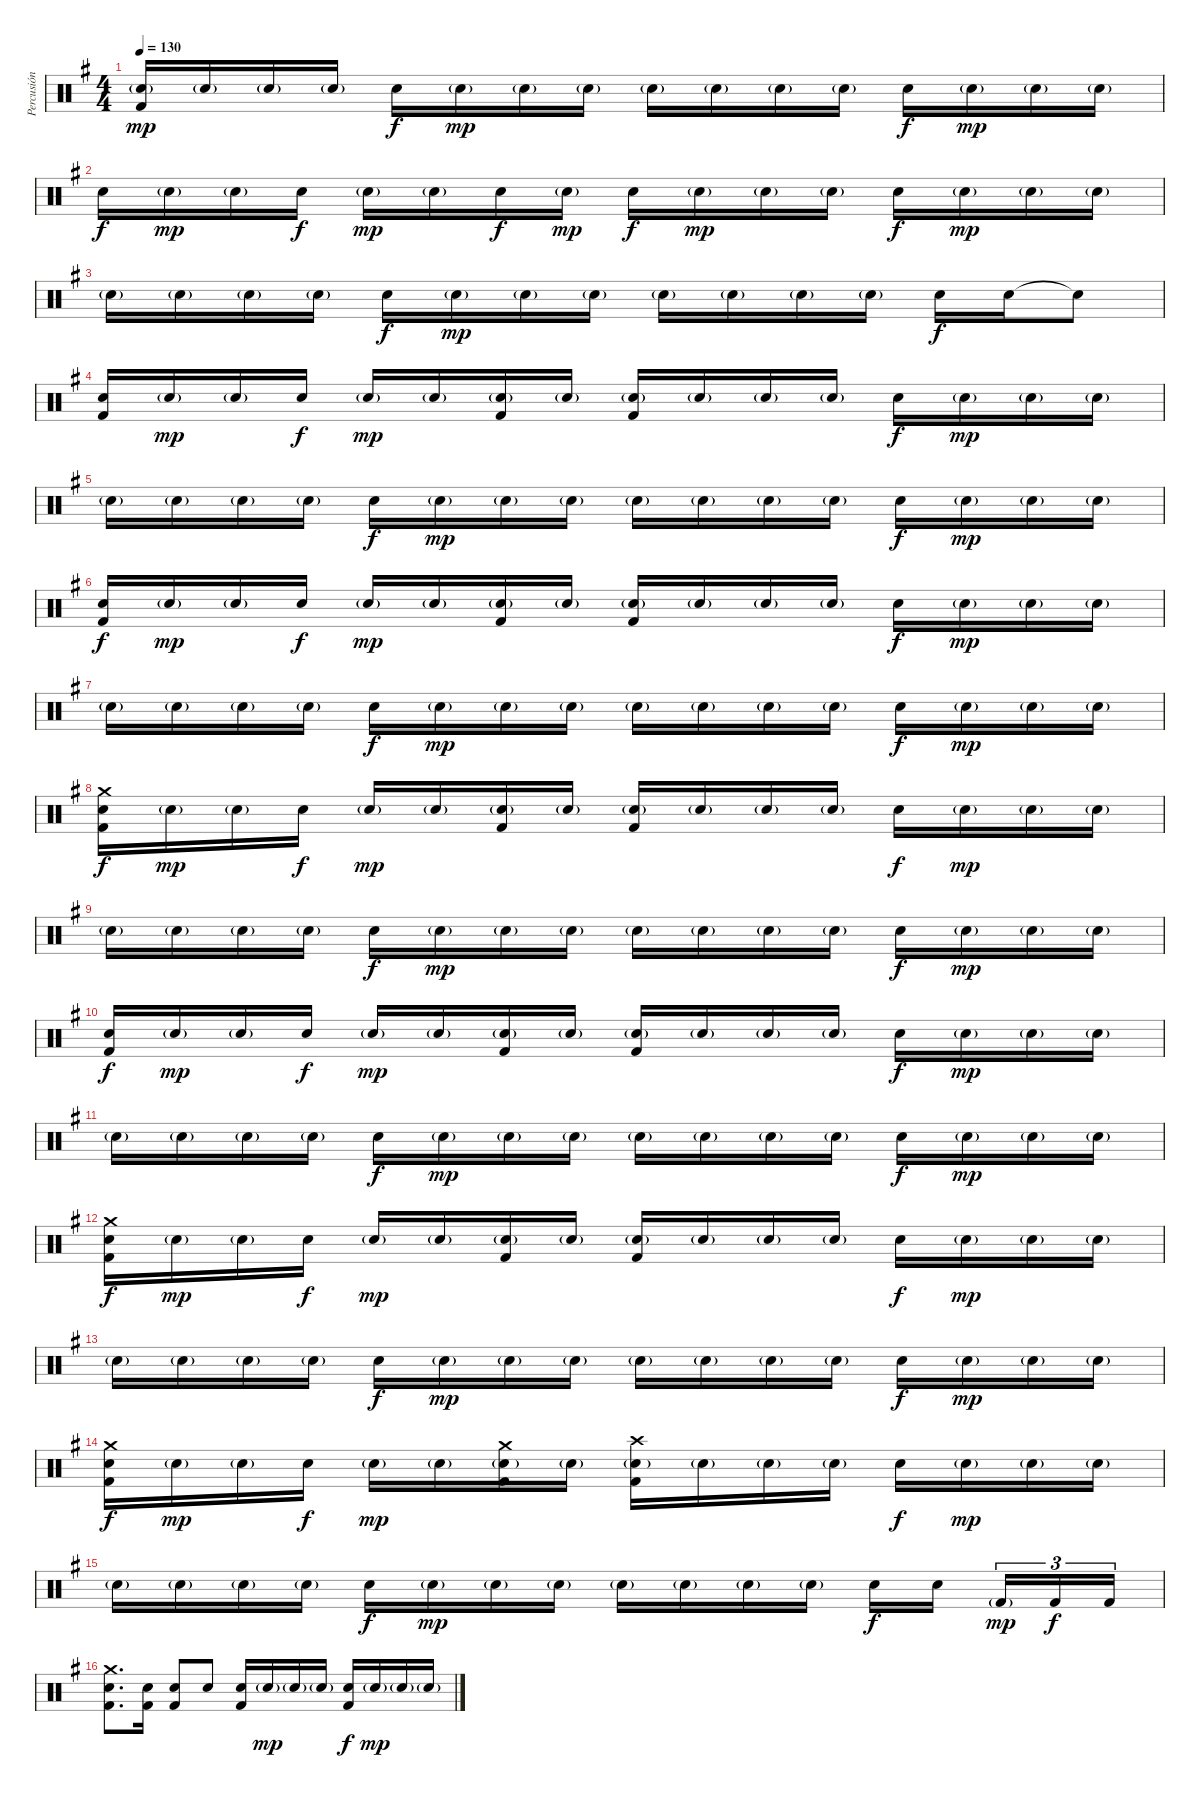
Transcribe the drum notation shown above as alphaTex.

\track ("Percusión" "Percusión") {instrument percussion}
\staff {score}
\articulation defaults
\ts (4 4)
\tempo 130
\clef neutral
\ks g
("Electric Snare (hit)"{g} "Kick (hit) 2").16{dy mp} "Electric Snare (hit)"{g}.16 "Electric Snare (hit)"{g}.16 "Electric Snare (hit)"{g}.16 "Electric Snare (hit)".16{dy f} "Electric Snare (hit)"{g}.16{dy mp} "Electric Snare (hit)"{g}.16 "Electric Snare (hit)"{g}.16 "Electric Snare (hit)"{g}.16 "Electric Snare (hit)"{g}.16 "Electric Snare (hit)"{g}.16 "Electric Snare (hit)"{g}.16 "Electric Snare (hit)".16{dy f} "Electric Snare (hit)"{g}.16{dy mp} "Electric Snare (hit)"{g}.16 "Electric Snare (hit)"{g}.16 |
"Electric Snare (hit)".16{dy f} "Electric Snare (hit)"{g}.16{dy mp} "Electric Snare (hit)"{g}.16 "Electric Snare (hit)".16{dy f} "Electric Snare (hit)"{g}.16{dy mp} "Electric Snare (hit)"{g}.16 "Electric Snare (hit)".16{dy f} "Electric Snare (hit)"{g}.16{dy mp} "Electric Snare (hit)".16{dy f} "Electric Snare (hit)"{g}.16{dy mp} "Electric Snare (hit)"{g}.16 "Electric Snare (hit)"{g}.16 "Electric Snare (hit)".16{dy f} "Electric Snare (hit)"{g}.16{dy mp} "Electric Snare (hit)"{g}.16 "Electric Snare (hit)"{g}.16 |
"Electric Snare (hit)"{g}.16 "Electric Snare (hit)"{g}.16 "Electric Snare (hit)"{g}.16 "Electric Snare (hit)"{g}.16 "Electric Snare (hit)".16{dy f} "Electric Snare (hit)"{g}.16{dy mp} "Electric Snare (hit)"{g}.16 "Electric Snare (hit)"{g}.16 "Electric Snare (hit)"{g}.16 "Electric Snare (hit)"{g}.16 "Electric Snare (hit)"{g}.16 "Electric Snare (hit)"{g}.16 "Electric Snare (hit)".16{dy f} "Electric Snare (hit)".16 "Snare (hit)"{t}.8 |
("Electric Snare (hit)" "Kick (hit) 2").16 "Electric Snare (hit)"{g}.16{dy mp} "Electric Snare (hit)"{g}.16 "Electric Snare (hit)".16{dy f} "Electric Snare (hit)"{g}.16{dy mp} "Electric Snare (hit)"{g}.16 ("Electric Snare (hit)"{g} "Kick (hit) 2").16 "Electric Snare (hit)"{g}.16 ("Electric Snare (hit)"{g} "Kick (hit) 2").16 "Electric Snare (hit)"{g}.16 "Electric Snare (hit)"{g}.16 "Electric Snare (hit)"{g}.16 "Electric Snare (hit)".16{dy f} "Electric Snare (hit)"{g}.16{dy mp} "Electric Snare (hit)"{g}.16 "Electric Snare (hit)"{g}.16 |
"Electric Snare (hit)"{g}.16 "Electric Snare (hit)"{g}.16 "Electric Snare (hit)"{g}.16 "Electric Snare (hit)"{g}.16 "Electric Snare (hit)".16{dy f} "Electric Snare (hit)"{g}.16{dy mp} "Electric Snare (hit)"{g}.16 "Electric Snare (hit)"{g}.16 "Electric Snare (hit)"{g}.16 "Electric Snare (hit)"{g}.16 "Electric Snare (hit)"{g}.16 "Electric Snare (hit)"{g}.16 "Electric Snare (hit)".16{dy f} "Electric Snare (hit)"{g}.16{dy mp} "Electric Snare (hit)"{g}.16 "Electric Snare (hit)"{g}.16 |
("Electric Snare (hit)" "Kick (hit) 2").16{dy f} "Electric Snare (hit)"{g}.16{dy mp} "Electric Snare (hit)"{g}.16 "Electric Snare (hit)".16{dy f} "Electric Snare (hit)"{g}.16{dy mp} "Electric Snare (hit)"{g}.16 ("Electric Snare (hit)"{g} "Kick (hit) 2").16 "Electric Snare (hit)"{g}.16 ("Electric Snare (hit)"{g} "Kick (hit) 2").16 "Electric Snare (hit)"{g}.16 "Electric Snare (hit)"{g}.16 "Electric Snare (hit)"{g}.16 "Electric Snare (hit)".16{dy f} "Electric Snare (hit)"{g}.16{dy mp} "Electric Snare (hit)"{g}.16 "Electric Snare (hit)"{g}.16 |
"Electric Snare (hit)"{g}.16 "Electric Snare (hit)"{g}.16 "Electric Snare (hit)"{g}.16 "Electric Snare (hit)"{g}.16 "Electric Snare (hit)".16{dy f} "Electric Snare (hit)"{g}.16{dy mp} "Electric Snare (hit)"{g}.16 "Electric Snare (hit)"{g}.16 "Electric Snare (hit)"{g}.16 "Electric Snare (hit)"{g}.16 "Electric Snare (hit)"{g}.16 "Electric Snare (hit)"{g}.16 "Electric Snare (hit)".16{dy f} "Electric Snare (hit)"{g}.16{dy mp} "Electric Snare (hit)"{g}.16 "Electric Snare (hit)"{g}.16 |
("Crash medium (hit)" "Electric Snare (hit)" "Kick (hit) 2").16{dy f} "Electric Snare (hit)"{g}.16{dy mp} "Electric Snare (hit)"{g}.16 "Electric Snare (hit)".16{dy f} "Electric Snare (hit)"{g}.16{dy mp} "Electric Snare (hit)"{g}.16 ("Electric Snare (hit)"{g} "Kick (hit) 2").16 "Electric Snare (hit)"{g}.16 ("Electric Snare (hit)"{g} "Kick (hit) 2").16 "Electric Snare (hit)"{g}.16 "Electric Snare (hit)"{g}.16 "Electric Snare (hit)"{g}.16 "Electric Snare (hit)".16{dy f} "Electric Snare (hit)"{g}.16{dy mp} "Electric Snare (hit)"{g}.16 "Electric Snare (hit)"{g}.16 |
"Electric Snare (hit)"{g}.16 "Electric Snare (hit)"{g}.16 "Electric Snare (hit)"{g}.16 "Electric Snare (hit)"{g}.16 "Electric Snare (hit)".16{dy f} "Electric Snare (hit)"{g}.16{dy mp} "Electric Snare (hit)"{g}.16 "Electric Snare (hit)"{g}.16 "Electric Snare (hit)"{g}.16 "Electric Snare (hit)"{g}.16 "Electric Snare (hit)"{g}.16 "Electric Snare (hit)"{g}.16 "Electric Snare (hit)".16{dy f} "Electric Snare (hit)"{g}.16{dy mp} "Electric Snare (hit)"{g}.16 "Electric Snare (hit)"{g}.16 |
("Electric Snare (hit)" "Kick (hit) 2").16{dy f} "Electric Snare (hit)"{g}.16{dy mp} "Electric Snare (hit)"{g}.16 "Electric Snare (hit)".16{dy f} "Electric Snare (hit)"{g}.16{dy mp} "Electric Snare (hit)"{g}.16 ("Electric Snare (hit)"{g} "Kick (hit) 2").16 "Electric Snare (hit)"{g}.16 ("Electric Snare (hit)"{g} "Kick (hit) 2").16 "Electric Snare (hit)"{g}.16 "Electric Snare (hit)"{g}.16 "Electric Snare (hit)"{g}.16 "Electric Snare (hit)".16{dy f} "Electric Snare (hit)"{g}.16{dy mp} "Electric Snare (hit)"{g}.16 "Electric Snare (hit)"{g}.16 |
"Electric Snare (hit)"{g}.16 "Electric Snare (hit)"{g}.16 "Electric Snare (hit)"{g}.16 "Electric Snare (hit)"{g}.16 "Electric Snare (hit)".16{dy f} "Electric Snare (hit)"{g}.16{dy mp} "Electric Snare (hit)"{g}.16 "Electric Snare (hit)"{g}.16 "Electric Snare (hit)"{g}.16 "Electric Snare (hit)"{g}.16 "Electric Snare (hit)"{g}.16 "Electric Snare (hit)"{g}.16 "Electric Snare (hit)".16{dy f} "Electric Snare (hit)"{g}.16{dy mp} "Electric Snare (hit)"{g}.16 "Electric Snare (hit)"{g}.16 |
("Crash medium (hit)" "Electric Snare (hit)" "Kick (hit) 2").16{dy f} "Electric Snare (hit)"{g}.16{dy mp} "Electric Snare (hit)"{g}.16 "Electric Snare (hit)".16{dy f} "Electric Snare (hit)"{g}.16{dy mp} "Electric Snare (hit)"{g}.16 ("Electric Snare (hit)"{g} "Kick (hit) 2").16 "Electric Snare (hit)"{g}.16 ("Electric Snare (hit)"{g} "Kick (hit) 2").16 "Electric Snare (hit)"{g}.16 "Electric Snare (hit)"{g}.16 "Electric Snare (hit)"{g}.16 "Electric Snare (hit)".16{dy f} "Electric Snare (hit)"{g}.16{dy mp} "Electric Snare (hit)"{g}.16 "Electric Snare (hit)"{g}.16 |
"Electric Snare (hit)"{g}.16 "Electric Snare (hit)"{g}.16 "Electric Snare (hit)"{g}.16 "Electric Snare (hit)"{g}.16 "Electric Snare (hit)".16{dy f} "Electric Snare (hit)"{g}.16{dy mp} "Electric Snare (hit)"{g}.16 "Electric Snare (hit)"{g}.16 "Electric Snare (hit)"{g}.16 "Electric Snare (hit)"{g}.16 "Electric Snare (hit)"{g}.16 "Electric Snare (hit)"{g}.16 "Electric Snare (hit)".16{dy f} "Electric Snare (hit)"{g}.16{dy mp} "Electric Snare (hit)"{g}.16 "Electric Snare (hit)"{g}.16 |
("Crash medium (hit)" "Electric Snare (hit)" "Kick (hit) 2").16{dy f} "Electric Snare (hit)"{g}.16{dy mp} "Electric Snare (hit)"{g}.16 "Electric Snare (hit)".16{dy f} "Electric Snare (hit)"{g}.16{dy mp} "Electric Snare (hit)"{g}.16 ("Crash medium (hit)" "Electric Snare (hit)"{g} "Kick (hit) 2").16 "Electric Snare (hit)"{g}.16 ("Crash high (hit)" "Electric Snare (hit)"{g} "Kick (hit) 2").16 "Electric Snare (hit)"{g}.16 "Electric Snare (hit)"{g}.16 "Electric Snare (hit)"{g}.16 "Electric Snare (hit)".16{dy f} "Electric Snare (hit)"{g}.16{dy mp} "Electric Snare (hit)"{g}.16 "Electric Snare (hit)"{g}.16 |
"Electric Snare (hit)"{g}.16 "Electric Snare (hit)"{g}.16 "Electric Snare (hit)"{g}.16 "Electric Snare (hit)"{g}.16 "Electric Snare (hit)".16{dy f} "Electric Snare (hit)"{g}.16{dy mp} "Electric Snare (hit)"{g}.16 "Electric Snare (hit)"{g}.16 "Electric Snare (hit)"{g}.16 "Electric Snare (hit)"{g}.16 "Electric Snare (hit)"{g}.16 "Electric Snare (hit)"{g}.16 "Electric Snare (hit)".16{dy f} "Electric Snare (hit)".16{beam splitsecondary} "Kick (hit) 2"{g}.16{tu (3 2) dy mp} "Kick (hit) 2".16{tu (3 2) dy f} "Kick (hit) 2".16{tu (3 2)} |
("Crash medium (hit)" "Electric Snare (hit)" "Kick (hit) 2").8{d} ("Electric Snare (hit)" "Kick (hit) 2").16 ("Electric Snare (hit)" "Kick (hit) 2").8 "Electric Snare (hit)".8 ("Electric Snare (hit)" "Kick (hit) 2").16 "Electric Snare (hit)"{g}.16{dy mp} "Electric Snare (hit)"{g}.16 "Electric Snare (hit)"{g}.16 ("Electric Snare (hit)" "Kick (hit) 2").16{dy f} "Electric Snare (hit)"{g}.16{dy mp} "Electric Snare (hit)"{g}.16 "Electric Snare (hit)"{g}.16
